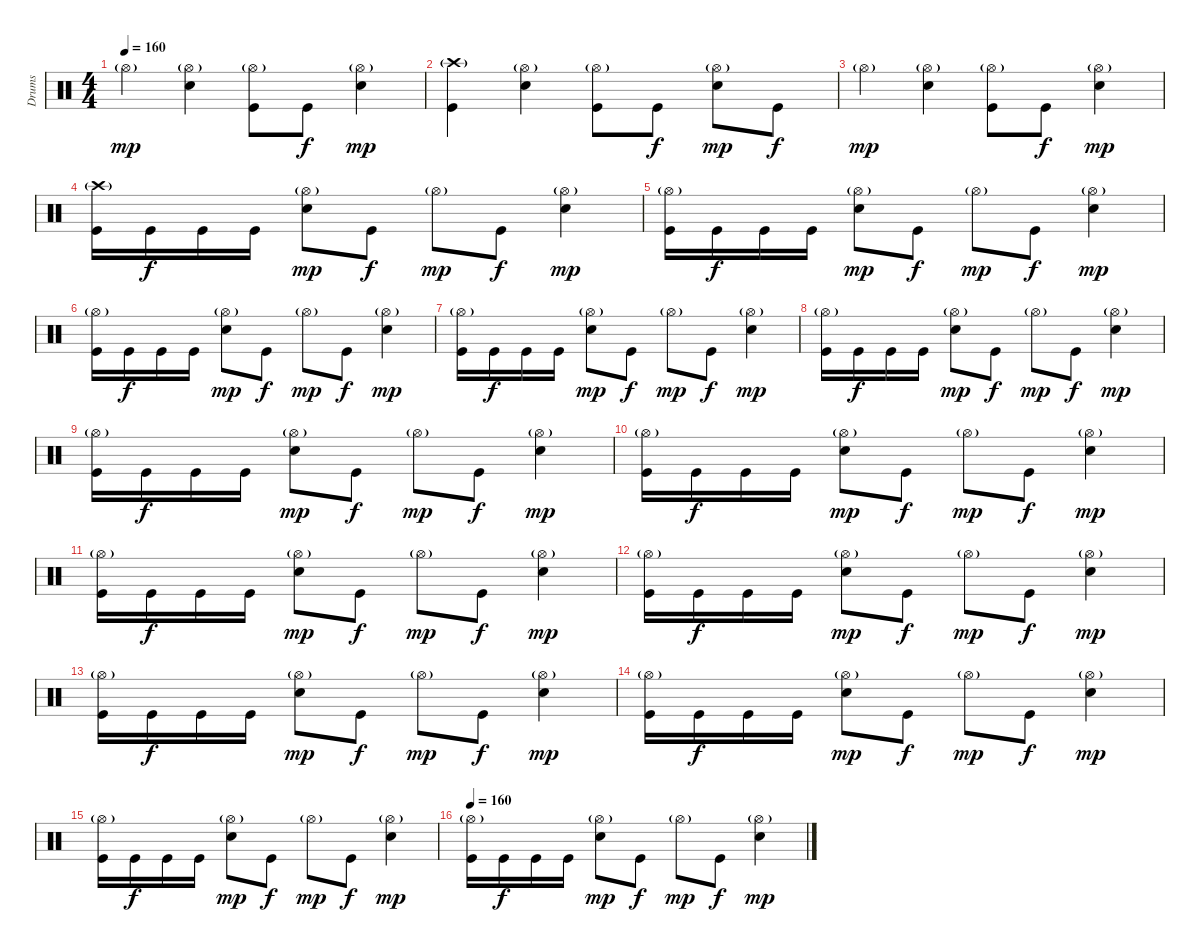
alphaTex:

\track ("Drums" "Drums") {instrument percussion}
\staff {score}
\articulation defaults
\ts (4 4)
\tempo 160
\clef neutral
\ks c "Hi-Hat (open)"{g}.4{dy mp}
("Hi-Hat (open)"{g} "Snare (hit) 2").4 ("Hi-Hat (open)"{g} "Kick (hit)").8 "Kick (hit)".8{dy f} ("Hi-Hat (open)"{g} "Snare (hit) 2").4{dy mp} |
("Crash high (hit)"{g} "Kick (hit)").4 ("Hi-Hat (open)"{g} "Snare (hit) 2").4 ("Hi-Hat (open)"{g} "Kick (hit)").8 "Kick (hit)".8{dy f} ("Hi-Hat (open)"{g} "Snare (hit) 2").8{dy mp} "Kick (hit)".8{dy f} |
"Hi-Hat (open)"{g}.4{dy mp} ("Hi-Hat (open)"{g} "Snare (hit) 2").4 ("Hi-Hat (open)"{g} "Kick (hit)").8 "Kick (hit)".8{dy f} ("Hi-Hat (open)"{g} "Snare (hit) 2").4{dy mp} |
("Crash high (hit)"{g} "Kick (hit)").16 "Kick (hit)".16{dy f} "Kick (hit)".16 "Kick (hit)".16 ("Hi-Hat (open)"{g} "Snare (hit) 2").8{dy mp} "Kick (hit)".8{dy f} "Hi-Hat (open)"{g}.8{dy mp} "Kick (hit)".8{dy f} ("Hi-Hat (open)"{g} "Snare (hit) 2").4{dy mp} |
("Hi-Hat (open)"{g} "Kick (hit)").16 "Kick (hit)".16{dy f} "Kick (hit)".16 "Kick (hit)".16 ("Hi-Hat (open)"{g} "Snare (hit) 2").8{dy mp} "Kick (hit)".8{dy f} "Hi-Hat (open)"{g}.8{dy mp} "Kick (hit)".8{dy f} ("Hi-Hat (open)"{g} "Snare (hit) 2").4{dy mp} |
("Hi-Hat (open)"{g} "Kick (hit)").16 "Kick (hit)".16{dy f} "Kick (hit)".16 "Kick (hit)".16 ("Hi-Hat (open)"{g} "Snare (hit) 2").8{dy mp} "Kick (hit)".8{dy f} "Hi-Hat (open)"{g}.8{dy mp} "Kick (hit)".8{dy f} ("Hi-Hat (open)"{g} "Snare (hit) 2").4{dy mp} |
("Hi-Hat (open)"{g} "Kick (hit)").16 "Kick (hit)".16{dy f} "Kick (hit)".16 "Kick (hit)".16 ("Hi-Hat (open)"{g} "Snare (hit) 2").8{dy mp} "Kick (hit)".8{dy f} "Hi-Hat (open)"{g}.8{dy mp} "Kick (hit)".8{dy f} ("Hi-Hat (open)"{g} "Snare (hit) 2").4{dy mp} |
("Hi-Hat (open)"{g} "Kick (hit)").16 "Kick (hit)".16{dy f} "Kick (hit)".16 "Kick (hit)".16 ("Hi-Hat (open)"{g} "Snare (hit) 2").8{dy mp} "Kick (hit)".8{dy f} "Hi-Hat (open)"{g}.8{dy mp} "Kick (hit)".8{dy f} ("Hi-Hat (open)"{g} "Snare (hit) 2").4{dy mp} |
("Hi-Hat (open)"{g} "Kick (hit)").16 "Kick (hit)".16{dy f} "Kick (hit)".16 "Kick (hit)".16 ("Hi-Hat (open)"{g} "Snare (hit) 2").8{dy mp} "Kick (hit)".8{dy f} "Hi-Hat (open)"{g}.8{dy mp} "Kick (hit)".8{dy f} ("Hi-Hat (open)"{g} "Snare (hit) 2").4{dy mp} |
("Hi-Hat (open)"{g} "Kick (hit)").16 "Kick (hit)".16{dy f} "Kick (hit)".16 "Kick (hit)".16 ("Hi-Hat (open)"{g} "Snare (hit) 2").8{dy mp} "Kick (hit)".8{dy f} "Hi-Hat (open)"{g}.8{dy mp} "Kick (hit)".8{dy f} ("Hi-Hat (open)"{g} "Snare (hit) 2").4{dy mp} |
("Hi-Hat (open)"{g} "Kick (hit)").16 "Kick (hit)".16{dy f} "Kick (hit)".16 "Kick (hit)".16 ("Hi-Hat (open)"{g} "Snare (hit) 2").8{dy mp} "Kick (hit)".8{dy f} "Hi-Hat (open)"{g}.8{dy mp} "Kick (hit)".8{dy f} ("Hi-Hat (open)"{g} "Snare (hit) 2").4{dy mp} |
("Hi-Hat (open)"{g} "Kick (hit)").16 "Kick (hit)".16{dy f} "Kick (hit)".16 "Kick (hit)".16 ("Hi-Hat (open)"{g} "Snare (hit) 2").8{dy mp} "Kick (hit)".8{dy f} "Hi-Hat (open)"{g}.8{dy mp} "Kick (hit)".8{dy f} ("Hi-Hat (open)"{g} "Snare (hit) 2").4{dy mp} |
("Hi-Hat (open)"{g} "Kick (hit)").16 "Kick (hit)".16{dy f} "Kick (hit)".16 "Kick (hit)".16 ("Hi-Hat (open)"{g} "Snare (hit) 2").8{dy mp} "Kick (hit)".8{dy f} "Hi-Hat (open)"{g}.8{dy mp} "Kick (hit)".8{dy f} ("Hi-Hat (open)"{g} "Snare (hit) 2").4{dy mp} |
("Hi-Hat (open)"{g} "Kick (hit)").16 "Kick (hit)".16{dy f} "Kick (hit)".16 "Kick (hit)".16 ("Hi-Hat (open)"{g} "Snare (hit) 2").8{dy mp} "Kick (hit)".8{dy f} "Hi-Hat (open)"{g}.8{dy mp} "Kick (hit)".8{dy f} ("Hi-Hat (open)"{g} "Snare (hit) 2").4{dy mp} |
("Hi-Hat (open)"{g} "Kick (hit)").16 "Kick (hit)".16{dy f} "Kick (hit)".16 "Kick (hit)".16 ("Hi-Hat (open)"{g} "Snare (hit) 2").8{dy mp} "Kick (hit)".8{dy f} "Hi-Hat (open)"{g}.8{dy mp} "Kick (hit)".8{dy f} ("Hi-Hat (open)"{g} "Snare (hit) 2").4{dy mp} |
\tempo 160
("Hi-Hat (open)"{g} "Kick (hit)").16 "Kick (hit)".16{dy f} "Kick (hit)".16 "Kick (hit)".16 ("Hi-Hat (open)"{g} "Snare (hit) 2").8{dy mp} "Kick (hit)".8{dy f} "Hi-Hat (open)"{g}.8{dy mp} "Kick (hit)".8{dy f} ("Hi-Hat (open)"{g} "Snare (hit) 2").4{dy mp}
